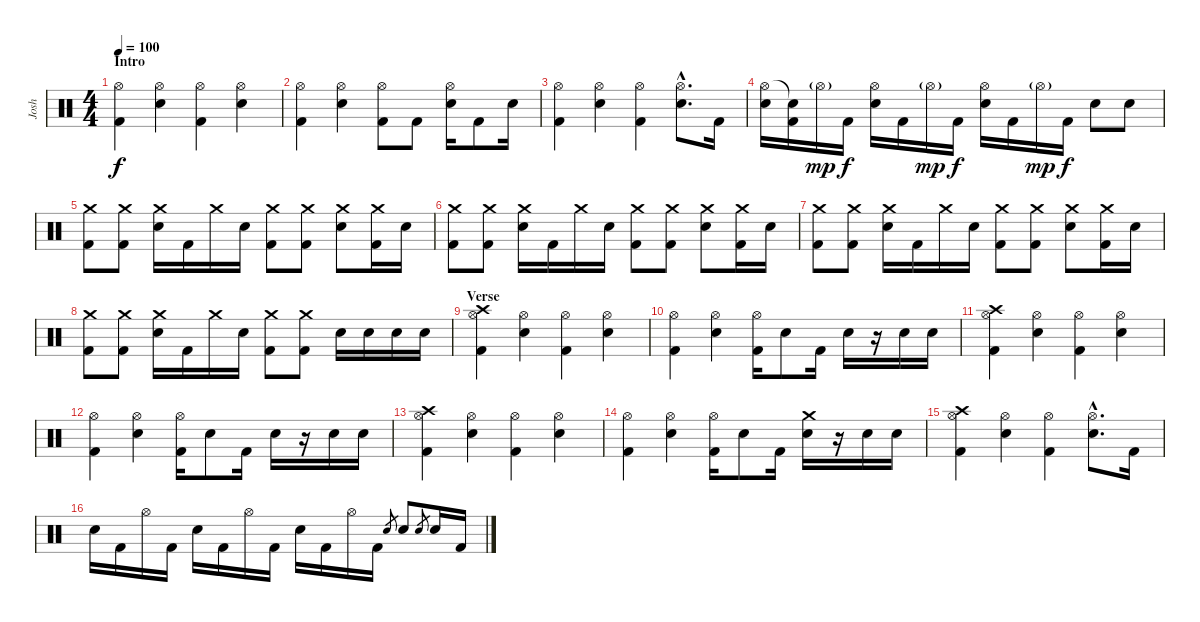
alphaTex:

\track ("Josh" "Josh") {instrument percussion}
\staff {score}
\articulation defaults
\ts (4 4)
\section ("" "Intro")
\tempo 100
\clef neutral
\ks c
("Hi-Hat (open)" "Kick (hit) 2").4{dy f} ("Hi-Hat (open)" "Electric Snare (hit)").4 ("Hi-Hat (open)" "Kick (hit) 2").4 ("Hi-Hat (open)" "Electric Snare (hit)").4 |
("Hi-Hat (open)" "Kick (hit) 2").4 ("Hi-Hat (open)" "Electric Snare (hit)").4 ("Hi-Hat (open)" "Kick (hit) 2").8 "Kick (hit) 2".8 ("Hi-Hat (open)" "Electric Snare (hit)").16 "Kick (hit) 2".8 "Electric Snare (hit)".16 |
("Hi-Hat (open)" "Kick (hit) 2").4 ("Hi-Hat (open)" "Electric Snare (hit)").4 ("Hi-Hat (open)" "Kick (hit) 2").4 ("Hi-Hat (open)"{hac} "Electric Snare (hit)"{hac}).8{d} "Kick (hit) 2".16 |
("Hi-Hat (open)" "Electric Snare (hit)").16 ("Snare (hit)"{t} "Kick (hit) 2").16 "Hi-Hat (open)"{g}.16{dy mp} "Kick (hit) 2".16{dy f} ("Hi-Hat (open)" "Electric Snare (hit)").16 "Kick (hit) 2".16 "Hi-Hat (open)"{g}.16{dy mp} "Kick (hit) 2".16{dy f} ("Hi-Hat (open)" "Electric Snare (hit)").16 "Kick (hit) 2".16 "Hi-Hat (open)"{g}.16{dy mp} "Kick (hit) 2".16{dy f} "Electric Snare (hit)".8 "Electric Snare (hit)".8 |
("Crash medium (hit)" "Kick (hit) 2").8 ("Crash medium (hit)" "Kick (hit) 2").8 ("Crash medium (hit)" "Electric Snare (hit)").16 "Kick (hit) 2".16 "Crash medium (hit)".16 "Electric Snare (hit)".16 ("Crash medium (hit)" "Kick (hit) 2").8 ("Crash medium (hit)" "Kick (hit) 2").8 ("Crash medium (hit)" "Electric Snare (hit)").8 ("Crash medium (hit)" "Kick (hit) 2").16 "Electric Snare (hit)".16 |
("Crash medium (hit)" "Kick (hit) 2").8 ("Crash medium (hit)" "Kick (hit) 2").8 ("Crash medium (hit)" "Electric Snare (hit)").16 "Kick (hit) 2".16 "Crash medium (hit)".16 "Electric Snare (hit)".16 ("Crash medium (hit)" "Kick (hit) 2").8 ("Crash medium (hit)" "Kick (hit) 2").8 ("Crash medium (hit)" "Electric Snare (hit)").8 ("Crash medium (hit)" "Kick (hit) 2").16 "Electric Snare (hit)".16 |
("Crash medium (hit)" "Kick (hit) 2").8 ("Crash medium (hit)" "Kick (hit) 2").8 ("Crash medium (hit)" "Electric Snare (hit)").16 "Kick (hit) 2".16 "Crash medium (hit)".16 "Electric Snare (hit)".16 ("Crash medium (hit)" "Kick (hit) 2").8 ("Crash medium (hit)" "Kick (hit) 2").8 ("Crash medium (hit)" "Electric Snare (hit)").8 ("Crash medium (hit)" "Kick (hit) 2").16 "Electric Snare (hit)".16 |
("Crash medium (hit)" "Kick (hit) 2").8 ("Crash medium (hit)" "Kick (hit) 2").8 ("Crash medium (hit)" "Electric Snare (hit)").16 "Kick (hit) 2".16 "Crash medium (hit)".16 "Electric Snare (hit)".16 ("Crash medium (hit)" "Kick (hit) 2").8 ("Crash medium (hit)" "Kick (hit) 2").8 "Electric Snare (hit)".16 "Electric Snare (hit)".16 "Electric Snare (hit)".16 "Electric Snare (hit)".16 |
\section ("" "Verse")
("Crash high (hit)" "Hi-Hat (open)" "Kick (hit) 2").4 ("Hi-Hat (open)" "Electric Snare (hit)").4 ("Hi-Hat (open)" "Kick (hit) 2").4 ("Hi-Hat (open)" "Electric Snare (hit)").4 |
("Hi-Hat (open)" "Kick (hit) 2").4 ("Hi-Hat (open)" "Electric Snare (hit)").4 ("Hi-Hat (open)" "Kick (hit) 2").16 "Electric Snare (hit)".8 "Kick (hit) 2".16 "Electric Snare (hit)".16 r.16 "Electric Snare (hit)".16 "Electric Snare (hit)".16 |
("Crash high (hit)" "Hi-Hat (open)" "Kick (hit) 2").4 ("Hi-Hat (open)" "Electric Snare (hit)").4 ("Hi-Hat (open)" "Kick (hit) 2").4 ("Hi-Hat (open)" "Electric Snare (hit)").4 |
("Hi-Hat (open)" "Kick (hit) 2").4 ("Hi-Hat (open)" "Electric Snare (hit)").4 ("Hi-Hat (open)" "Kick (hit) 2").16 "Electric Snare (hit)".8 "Kick (hit) 2".16 "Electric Snare (hit)".16 r.16 "Electric Snare (hit)".16 "Electric Snare (hit)".16 |
("Crash high (hit)" "Hi-Hat (open)" "Kick (hit) 2").4 ("Hi-Hat (open)" "Electric Snare (hit)").4 ("Hi-Hat (open)" "Kick (hit) 2").4 ("Hi-Hat (open)" "Electric Snare (hit)").4 |
("Hi-Hat (open)" "Kick (hit) 2").4 ("Hi-Hat (open)" "Electric Snare (hit)").4 ("Hi-Hat (open)" "Kick (hit) 2").16 "Electric Snare (hit)".8 "Kick (hit) 2".16 ("Crash medium (hit)" "Electric Snare (hit)").16 r.16 "Electric Snare (hit)".16 "Electric Snare (hit)".16 |
("Crash high (hit)" "Hi-Hat (open)" "Kick (hit) 2").4 ("Hi-Hat (open)" "Electric Snare (hit)").4 ("Hi-Hat (open)" "Kick (hit) 2").4 ("Hi-Hat (open)"{hac} "Electric Snare (hit)"{hac}).8{d} "Kick (hit) 2".16 |
"Electric Snare (hit)".16 "Kick (hit) 2".16 "Hi-Hat (open)".16 "Kick (hit) 2".16 "Electric Snare (hit)".16 "Kick (hit) 2".16 "Hi-Hat (open)".16 "Kick (hit) 2".16 "Electric Snare (hit)".16 "Kick (hit) 2".16 "Hi-Hat (open)".16 "Kick (hit) 2".16 "Electric Snare (hit)".8{gr} "Electric Snare (hit)".8 "Electric Snare (hit)".8{gr} "Electric Snare (hit)".16 "Kick (hit) 2".16
